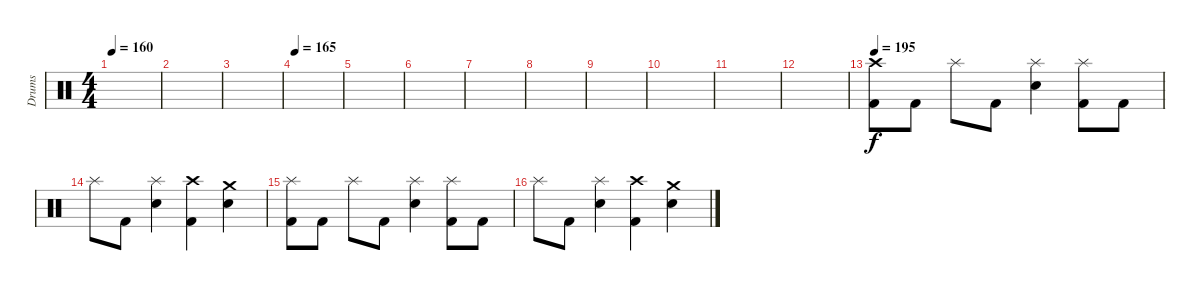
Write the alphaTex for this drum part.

\track ("Drums" "Drums") {instrument percussion}
\staff {score}
\articulation defaults
\ts (4 4)
\tempo 160
\clef neutral
\ks c
|
|
|
\tempo 165
|
|
|
|
|
|
|
|
|
\tempo 195
("Crash high (hit)" "Kick (hit) 2").8 "Kick (hit) 2".8 "Splash (hit)".8 "Kick (hit) 2".8 ("Splash (hit)" "Snare (hit) 2").4 ("Splash (hit)" "Kick (hit) 2").8 "Kick (hit) 2".8 |
"Splash (hit)".8 "Kick (hit) 2".8 ("Splash (hit)" "Snare (hit) 2").4 ("Crash high (hit)" "Kick (hit) 2").4 ("Crash medium (hit)" "Snare (hit) 2").4 |
("Splash (hit)" "Kick (hit) 2").8 "Kick (hit) 2".8 "Splash (hit)".8 "Kick (hit) 2".8 ("Splash (hit)" "Snare (hit) 2").4 ("Splash (hit)" "Kick (hit) 2").8 "Kick (hit) 2".8 |
"Splash (hit)".8 "Kick (hit) 2".8 ("Splash (hit)" "Snare (hit) 2").4 ("Crash high (hit)" "Kick (hit) 2").4 ("Crash medium (hit)" "Snare (hit) 2").4
